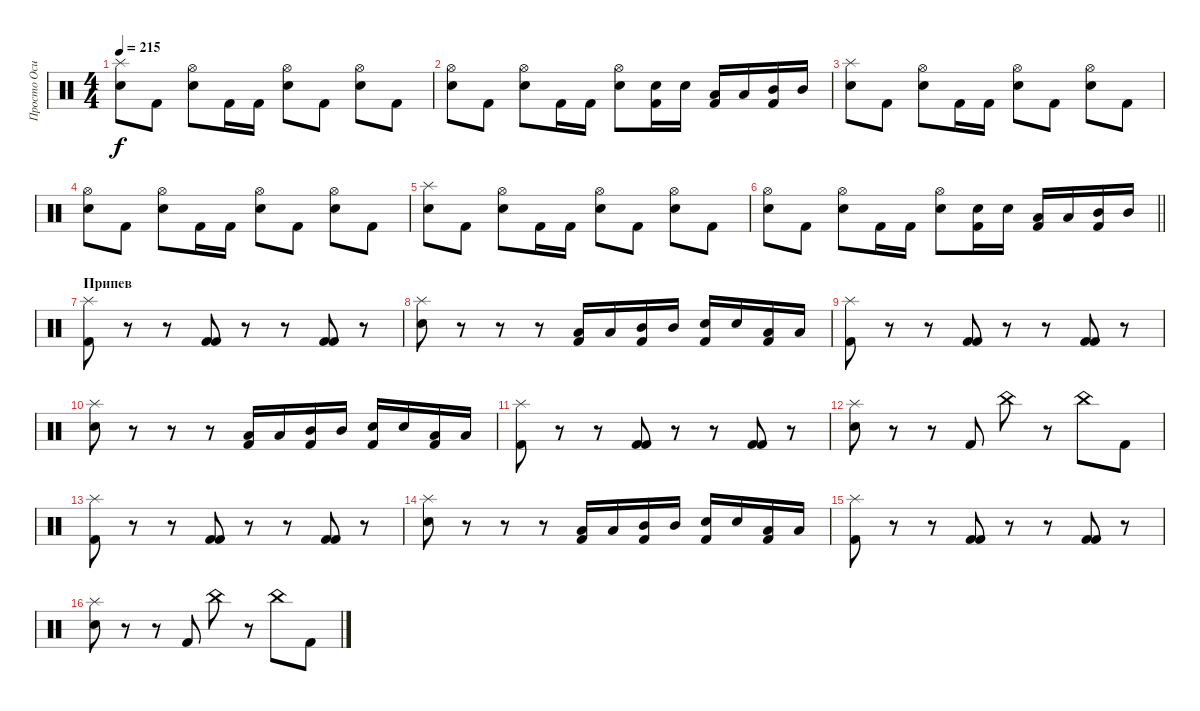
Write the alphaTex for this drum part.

\track ("Просто Осип" "Просто Оси") {instrument percussion}
\staff {score}
\articulation defaults
\ts (4 4)
\tempo 215
\clef neutral
\ks c
("Electric Snare (hit)" "Splash (hit)").8{dy f} "Kick (hit) 2".8 ("Electric Snare (hit)" "Hi-Hat (open)").8 "Kick (hit) 2".16 "Kick (hit) 2".16 ("Electric Snare (hit)" "Hi-Hat (open)").8 "Kick (hit) 2".8 ("Electric Snare (hit)" "Hi-Hat (open)").8 "Kick (hit) 2".8 |
("Electric Snare (hit)" "Hi-Hat (open)").8 "Kick (hit) 2".8 ("Electric Snare (hit)" "Hi-Hat (open)").8 "Kick (hit) 2".16 "Kick (hit) 2".16 ("Electric Snare (hit)" "Hi-Hat (open)").8 ("Kick (hit) 2" "Electric Snare (hit)").16 "Electric Snare (hit)".16 ("Kick (hit) 2" "Low Tom (hit)").16 "Low Tom (hit)".16 ("Kick (hit) 2" "Mid Tom (hit)").16 "Mid Tom (hit)".16 |
("Electric Snare (hit)" "Splash (hit)").8 "Kick (hit) 2".8 ("Electric Snare (hit)" "Hi-Hat (open)").8 "Kick (hit) 2".16 "Kick (hit) 2".16 ("Electric Snare (hit)" "Hi-Hat (open)").8 "Kick (hit) 2".8 ("Electric Snare (hit)" "Hi-Hat (open)").8 "Kick (hit) 2".8 |
("Electric Snare (hit)" "Hi-Hat (open)").8 "Kick (hit) 2".8 ("Electric Snare (hit)" "Hi-Hat (open)").8 "Kick (hit) 2".16 "Kick (hit) 2".16 ("Electric Snare (hit)" "Hi-Hat (open)").8 "Kick (hit) 2".8 ("Electric Snare (hit)" "Hi-Hat (open)").8 "Kick (hit) 2".8 |
("Electric Snare (hit)" "Splash (hit)").8 "Kick (hit) 2".8 ("Electric Snare (hit)" "Hi-Hat (open)").8 "Kick (hit) 2".16 "Kick (hit) 2".16 ("Electric Snare (hit)" "Hi-Hat (open)").8 "Kick (hit) 2".8 ("Electric Snare (hit)" "Hi-Hat (open)").8 "Kick (hit) 2".8 |
\barLineRight lightlight
("Electric Snare (hit)" "Hi-Hat (open)").8 "Kick (hit) 2".8 ("Electric Snare (hit)" "Hi-Hat (open)").8 "Kick (hit) 2".16 "Kick (hit) 2".16 ("Electric Snare (hit)" "Hi-Hat (open)").8 ("Kick (hit) 2" "Electric Snare (hit)").16 "Electric Snare (hit)".16 ("Kick (hit) 2" "Low Tom (hit)").16 "Low Tom (hit)".16 ("Kick (hit) 2" "Mid Tom (hit)").16 "Mid Tom (hit)".16 |
\section ("" "Припев")
("Kick (hit) 2" "Splash (hit)").8 r.8 r.8 ("Kick (hit) 2" "Kick (hit) 2").8 r.8 r.8 ("Kick (hit) 2" "Kick (hit) 2").8 r.8 |
("Splash (hit)" "Electric Snare (hit)").8 r.8 r.8 r.8 ("Kick (hit) 2" "Low Tom (hit)").16 "Low Tom (hit)".16 ("Kick (hit) 2" "Mid Tom (hit)").16 "Mid Tom (hit)".16 ("Kick (hit) 2" "Electric Snare (hit)").16 "Electric Snare (hit)".16 ("Kick (hit) 2" "Low Tom (hit)").16 "Low Tom (hit)".16 |
("Kick (hit) 2" "Splash (hit)").8 r.8 r.8 ("Kick (hit) 2" "Kick (hit) 2").8 r.8 r.8 ("Kick (hit) 2" "Kick (hit) 2").8 r.8 |
("Splash (hit)" "Electric Snare (hit)").8 r.8 r.8 r.8 ("Kick (hit) 2" "Low Tom (hit)").16 "Low Tom (hit)".16 ("Kick (hit) 2" "Mid Tom (hit)").16 "Mid Tom (hit)".16 ("Kick (hit) 2" "Electric Snare (hit)").16 "Electric Snare (hit)".16 ("Kick (hit) 2" "Low Tom (hit)").16 "Low Tom (hit)".16 |
("Kick (hit) 2" "Splash (hit)").8 r.8 r.8 ("Kick (hit) 2" "Kick (hit) 2").8 r.8 r.8 ("Kick (hit) 2" "Kick (hit) 2").8 r.8 |
("Splash (hit)" "Electric Snare (hit)").8 r.8 r.8 "Kick (hit) 2".8 "China (hit)".8 r.8 "China (hit)".8 "Kick (hit) 2".8 |
("Kick (hit) 2" "Splash (hit)").8 r.8 r.8 ("Kick (hit) 2" "Kick (hit) 2").8 r.8 r.8 ("Kick (hit) 2" "Kick (hit) 2").8 r.8 |
("Splash (hit)" "Electric Snare (hit)").8 r.8 r.8 r.8 ("Kick (hit) 2" "Low Tom (hit)").16 "Low Tom (hit)".16 ("Kick (hit) 2" "Mid Tom (hit)").16 "Mid Tom (hit)".16 ("Kick (hit) 2" "Electric Snare (hit)").16 "Electric Snare (hit)".16 ("Kick (hit) 2" "Low Tom (hit)").16 "Low Tom (hit)".16 |
("Kick (hit) 2" "Splash (hit)").8 r.8 r.8 ("Kick (hit) 2" "Kick (hit) 2").8 r.8 r.8 ("Kick (hit) 2" "Kick (hit) 2").8 r.8 |
("Splash (hit)" "Electric Snare (hit)").8 r.8 r.8 "Kick (hit) 2".8 "China (hit)".8 r.8 "China (hit)".8 "Kick (hit) 2".8
